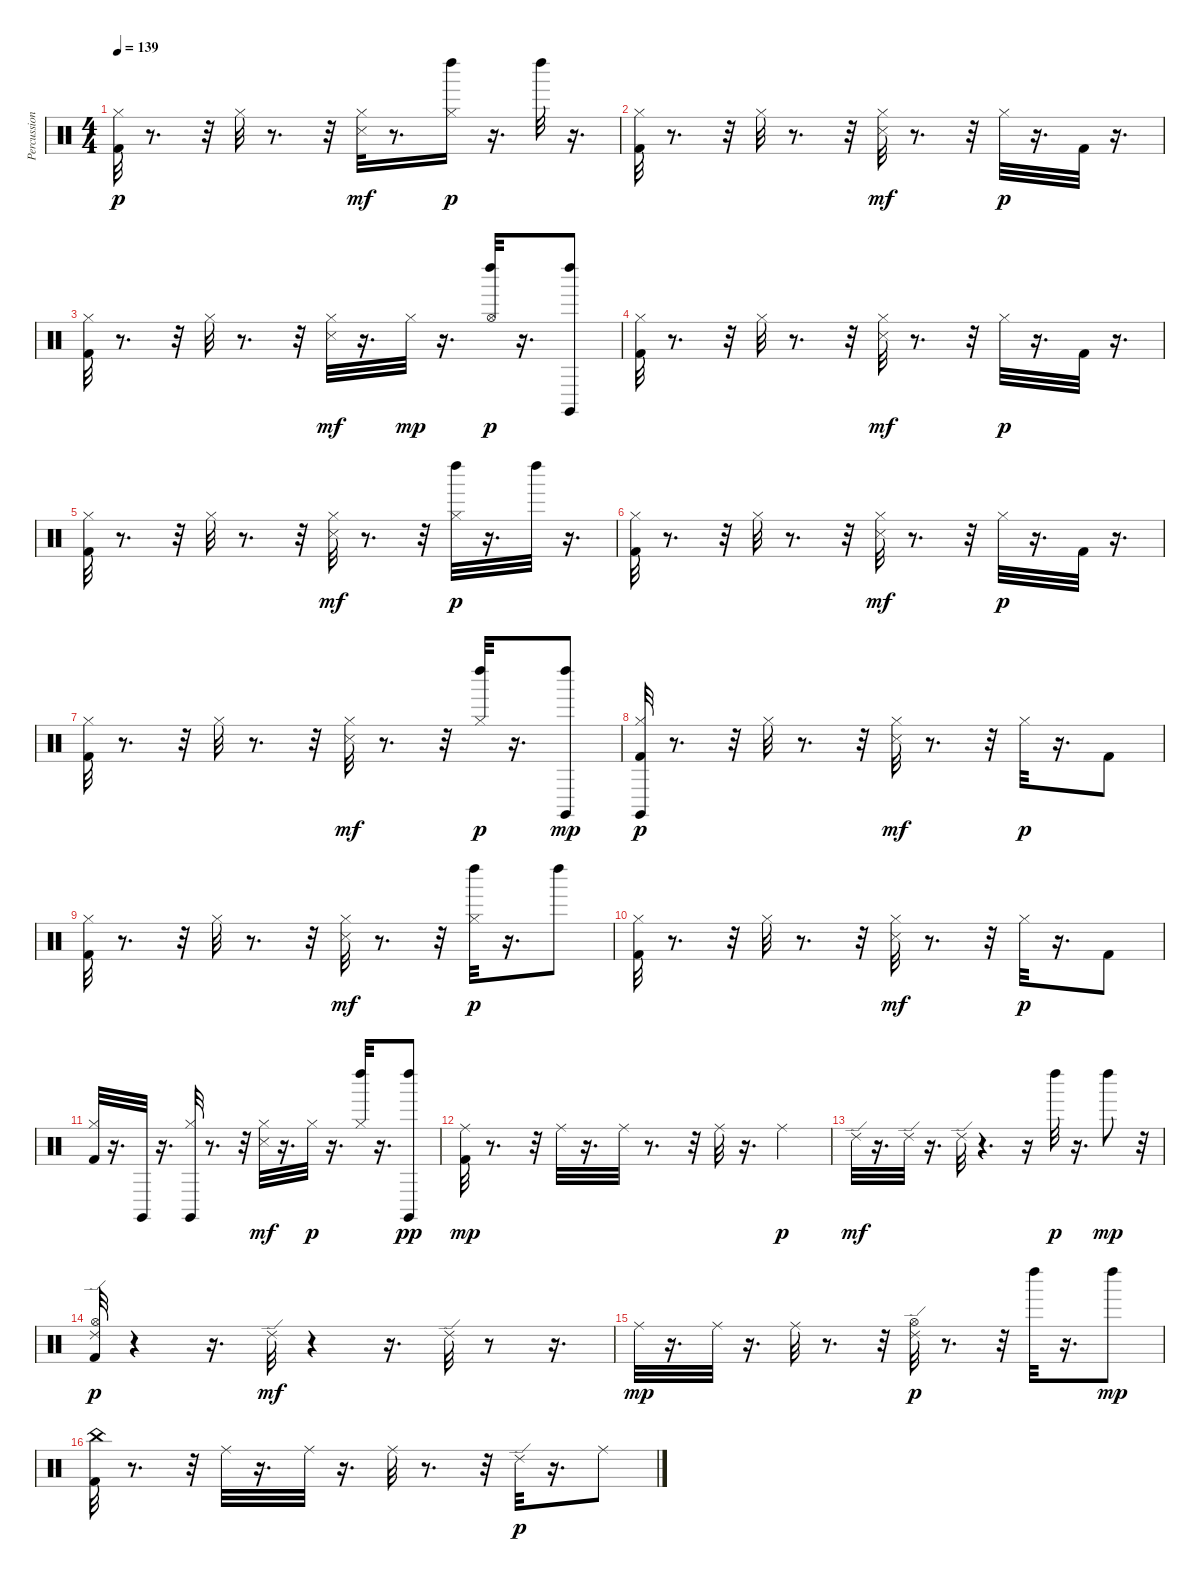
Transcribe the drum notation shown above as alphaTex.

\track ("Percussion" "Percussion") {instrument percussion}
\staff {score}
\articulation defaults
\ts (4 4)
\tempo 139
\clef neutral
\ks c
("Hi-Hat (closed)" "Kick (hit) 2").32{dy p} r.8{d} r.32 "Hi-Hat (closed)".32 r.8{d} r.32 ("Hi-Hat (closed)" "Snare (side stick) 3").32{dy mf} r.8{d} ("Hi-Hat (closed)" "Left Maraca (hit)").16{dy p} r.16{d} "Left Maraca (hit)".32 r.16{d} |
("Hi-Hat (closed)" "Kick (hit) 2").32 r.8{d} r.32 "Hi-Hat (closed)".32 r.8{d} r.32 ("Hi-Hat (closed)" "Snare (side stick) 3").32{dy mf} r.8{d} r.32 "Hi-Hat (closed)".32{dy p} r.16{d} "Kick (hit) 2".32 r.16{d} |
("Hi-Hat (closed)" "Kick (hit) 2").32 r.8{d} r.32 "Hi-Hat (closed)".32 r.8{d} r.32 ("Hi-Hat (closed)" "Snare (side stick) 3").32{dy mf} r.16{d} "Hi-Hat (closed)".32{dy mp} r.16{d} ("Left Maraca (hit)" "Hi-Hat (open)").32{dy p} r.16{d} ("Claves (hit)" "Left Maraca (hit)").8 |
("Hi-Hat (closed)" "Kick (hit) 2").32 r.8{d} r.32 "Hi-Hat (closed)".32 r.8{d} r.32 ("Hi-Hat (closed)" "Snare (side stick) 3").32{dy mf} r.8{d} r.32 "Hi-Hat (closed)".32{dy p} r.16{d} "Kick (hit) 2".32 r.16{d} |
("Hi-Hat (closed)" "Kick (hit) 2").32 r.8{d} r.32 "Hi-Hat (closed)".32 r.8{d} r.32 ("Hi-Hat (closed)" "Snare (side stick) 3").32{dy mf} r.8{d} r.32 ("Left Maraca (hit)" "Hi-Hat (closed)").32{dy p} r.16{d} "Left Maraca (hit)".32 r.16{d} |
("Hi-Hat (closed)" "Kick (hit) 2").32 r.8{d} r.32 "Hi-Hat (closed)".32 r.8{d} r.32 ("Hi-Hat (closed)" "Snare (side stick) 3").32{dy mf} r.8{d} r.32 "Hi-Hat (closed)".32{dy p} r.16{d} "Kick (hit) 2".32 r.16{d} |
("Hi-Hat (closed)" "Kick (hit) 2").32 r.8{d} r.32 "Hi-Hat (closed)".32 r.8{d} r.32 ("Hi-Hat (closed)" "Snare (side stick) 3").32{dy mf} r.8{d} r.32 ("Left Maraca (hit)" "Hi-Hat (closed)").32{dy p} r.16{d} ("Claves (hit)" "Left Maraca (hit)").8{dy mp} |
("Claves (hit)" "Hi-Hat (closed)" "Kick (hit) 2").32{dy p} r.8{d} r.32 "Hi-Hat (closed)".32 r.8{d} r.32 ("Hi-Hat (closed)" "Snare (side stick) 3").32{dy mf} r.8{d} r.32 "Hi-Hat (closed)".32{dy p} r.16{d} "Kick (hit) 2".8 |
("Hi-Hat (closed)" "Kick (hit) 2").32 r.8{d} r.32 "Hi-Hat (closed)".32 r.8{d} r.32 ("Hi-Hat (closed)" "Snare (side stick) 3").32{dy mf} r.8{d} r.32 ("Left Maraca (hit)" "Hi-Hat (closed)").32{dy p} r.16{d} "Left Maraca (hit)".8 |
("Hi-Hat (closed)" "Kick (hit) 2").32 r.8{d} r.32 "Hi-Hat (closed)".32 r.8{d} r.32 ("Hi-Hat (closed)" "Snare (side stick) 3").32{dy mf} r.8{d} r.32 "Hi-Hat (closed)".32{dy p} r.16{d} "Kick (hit) 2".8 |
("Hi-Hat (closed)" "Kick (hit) 2").32 r.16{d} "Claves (hit)".32 r.16{d} ("Claves (hit)" "Hi-Hat (closed)").32 r.8{d} r.32 ("Hi-Hat (closed)" "Snare (side stick) 3").32{dy mf} r.16{d} "Hi-Hat (closed)".32{dy p} r.16{d} ("Left Maraca (hit)" "Hi-Hat (closed)").32 r.16{d} ("Left Maraca (hit)" "Claves (hit)").8{dy pp} |
("Ride (middle)" "Kick (hit) 2").32{dy mp} r.8{d} r.32 "Ride (middle)".32 r.16{d} "Ride (middle)".32 r.8{d} r.32 "Ride (middle)".32 r.16{d} "Ride (middle)".4{dy p} |
"Ride (edge) 2".32{dy mf} r.16{d} "Ride (edge) 2".32 r.16{d} "Ride (edge) 2".32 r.4{d} r.16 "Left Maraca (hit)".32{dy p} r.16{d} "Left Maraca (hit)".8{dy mp} r.32 |
("Ride (edge) 2" "Hi-Hat (open)" "Kick (hit) 2").32{dy p} r.4 r.16{d} "Ride (edge) 2".32{dy mf} r.4 r.16{d} "Ride (edge) 2".32 r.8 r.16{d} |
"Ride (middle)".32{dy mp} r.16{d} "Ride (middle)".32 r.16{d} "Ride (middle)".32 r.8{d} r.32 ("Ride (edge) 2" "Hi-Hat (open)").32{dy p} r.8{d} r.32 "Left Maraca (hit)".32 r.16{d} "Left Maraca (hit)".8{dy mp} |
("China (hit)" "Kick (hit) 2").32 r.8{d} r.32 "Ride (middle)".32 r.16{d} "Ride (middle)".32 r.16{d} "Ride (middle)".32 r.8{d} r.32 "Ride (edge) 2".32{dy p} r.16{d} "Ride (middle)".8
